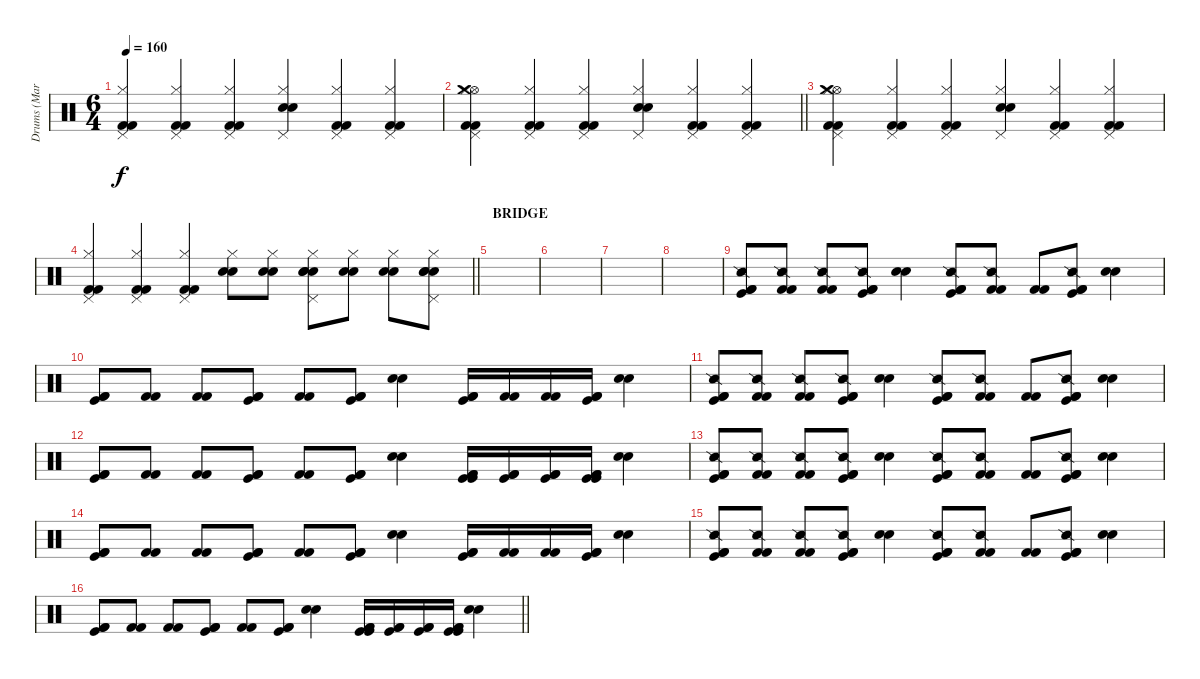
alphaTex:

\track ("Drums (Marc Allen)" "Drums (Mar") {instrument percussion}
\staff {score}
\articulation defaults
\ts (6 4)
\tempo 160
\clef neutral
\ks c
("Pedal Hi-Hat (hit)" "Hi-Hat (closed)" "Kick (hit) 2" "Kick (hit) 2").4{dy f} ("Pedal Hi-Hat (hit)" "Hi-Hat (closed)" "Kick (hit) 2" "Kick (hit) 2").4 ("Pedal Hi-Hat (hit)" "Hi-Hat (closed)" "Kick (hit) 2" "Kick (hit) 2").4 ("Pedal Hi-Hat (hit)" "Hi-Hat (closed)" "Electric Snare (hit)" "Electric Snare (hit)").4 ("Pedal Hi-Hat (hit)" "Hi-Hat (closed)" "Kick (hit) 2" "Kick (hit) 2").4 ("Pedal Hi-Hat (hit)" "Hi-Hat (closed)" "Kick (hit) 2" "Kick (hit) 2").4 |
\barLineRight lightlight
("Pedal Hi-Hat (hit)" "Hi-Hat (open)" "Hi-Hat (closed)" "Crash medium (hit)" "Kick (hit) 2" "Kick (hit) 2").4 ("Pedal Hi-Hat (hit)" "Hi-Hat (closed)" "Kick (hit) 2" "Kick (hit) 2").4 ("Pedal Hi-Hat (hit)" "Hi-Hat (closed)" "Kick (hit) 2" "Kick (hit) 2").4 ("Pedal Hi-Hat (hit)" "Hi-Hat (closed)" "Electric Snare (hit)" "Electric Snare (hit)").4 ("Pedal Hi-Hat (hit)" "Hi-Hat (closed)" "Kick (hit) 2" "Kick (hit) 2").4 ("Pedal Hi-Hat (hit)" "Hi-Hat (closed)" "Kick (hit) 2" "Kick (hit) 2").4 |
("Pedal Hi-Hat (hit)" "Hi-Hat (open)" "Hi-Hat (closed)" "Crash medium (hit)" "Kick (hit) 2" "Kick (hit) 2").4 ("Pedal Hi-Hat (hit)" "Hi-Hat (closed)" "Kick (hit) 2" "Kick (hit) 2").4 ("Pedal Hi-Hat (hit)" "Hi-Hat (closed)" "Kick (hit) 2" "Kick (hit) 2").4 ("Pedal Hi-Hat (hit)" "Hi-Hat (closed)" "Electric Snare (hit)" "Electric Snare (hit)").4 ("Pedal Hi-Hat (hit)" "Hi-Hat (closed)" "Kick (hit) 2" "Kick (hit) 2").4 ("Pedal Hi-Hat (hit)" "Hi-Hat (closed)" "Kick (hit) 2" "Kick (hit) 2").4 |
\barLineRight lightlight
("Pedal Hi-Hat (hit)" "Hi-Hat (closed)" "Kick (hit) 2" "Kick (hit) 2").4 ("Pedal Hi-Hat (hit)" "Hi-Hat (closed)" "Kick (hit) 2" "Kick (hit) 2").4 ("Pedal Hi-Hat (hit)" "Hi-Hat (closed)" "Kick (hit) 2" "Kick (hit) 2").4 ("Hi-Hat (closed)" "Electric Snare (hit)" "Electric Snare (hit)").8 ("Hi-Hat (closed)" "Electric Snare (hit)" "Electric Snare (hit)").8 ("Hi-Hat (closed)" "Pedal Hi-Hat (hit)" "Electric Snare (hit)" "Electric Snare (hit)" "Snare (hit) 2").8 ("Hi-Hat (closed)" "Electric Snare (hit)" "Electric Snare (hit)").8 ("Hi-Hat (closed)" "Electric Snare (hit)" "Electric Snare (hit)").8 ("Hi-Hat (closed)" "Pedal Hi-Hat (hit)" "Electric Snare (hit)" "Electric Snare (hit)" "Snare (hit) 2").8 |
\section ("" "BRIDGE")
|
|
|
|
("Kick (hit) 2" "Snare (side stick) 2" "Kick (hit) 2" "Kick (hit)").8 ("Kick (hit) 2" "Snare (side stick) 2" "Kick (hit) 2").8 ("Kick (hit) 2" "Snare (side stick) 2" "Kick (hit) 2").8 ("Kick (hit) 2" "Snare (side stick) 2" "Kick (hit) 2" "Kick (hit)").8 ("Electric Snare (hit)" "Electric Snare (hit)").4 ("Kick (hit) 2" "Snare (side stick) 2" "Kick (hit) 2" "Kick (hit)").8 ("Kick (hit) 2" "Snare (side stick) 2" "Kick (hit) 2").8 ("Kick (hit) 2" "Kick (hit) 2").8 ("Kick (hit) 2" "Snare (side stick) 2" "Kick (hit) 2" "Kick (hit)").8 ("Electric Snare (hit)" "Electric Snare (hit)").4 |
("Kick (hit) 2" "Kick (hit) 2" "Kick (hit)").8 ("Kick (hit) 2" "Kick (hit) 2").8 ("Kick (hit) 2" "Kick (hit) 2").8 ("Kick (hit) 2" "Kick (hit) 2" "Kick (hit)").8 ("Kick (hit) 2" "Kick (hit) 2").8 ("Kick (hit) 2" "Kick (hit) 2" "Kick (hit)").8 ("Electric Snare (hit)" "Electric Snare (hit)").4 ("Kick (hit) 2" "Kick (hit) 2" "Kick (hit)").16 ("Kick (hit) 2" "Kick (hit) 2").16 ("Kick (hit) 2" "Kick (hit) 2").16 ("Kick (hit) 2" "Kick (hit) 2" "Kick (hit)").16 ("Electric Snare (hit)" "Electric Snare (hit)").4 |
("Kick (hit) 2" "Snare (side stick) 2" "Kick (hit) 2" "Kick (hit)").8 ("Kick (hit) 2" "Snare (side stick) 2" "Kick (hit) 2").8 ("Kick (hit) 2" "Snare (side stick) 2" "Kick (hit) 2").8 ("Kick (hit) 2" "Snare (side stick) 2" "Kick (hit) 2" "Kick (hit)").8 ("Electric Snare (hit)" "Electric Snare (hit)").4 ("Kick (hit) 2" "Snare (side stick) 2" "Kick (hit) 2" "Kick (hit)").8 ("Kick (hit) 2" "Snare (side stick) 2" "Kick (hit) 2").8 ("Kick (hit) 2" "Kick (hit) 2").8 ("Kick (hit) 2" "Snare (side stick) 2" "Kick (hit) 2" "Kick (hit)").8 ("Electric Snare (hit)" "Electric Snare (hit)").4 |
("Kick (hit) 2" "Kick (hit) 2" "Kick (hit)").8 ("Kick (hit) 2" "Kick (hit) 2").8 ("Kick (hit) 2" "Kick (hit) 2").8 ("Kick (hit) 2" "Kick (hit) 2" "Kick (hit)").8 ("Kick (hit) 2" "Kick (hit) 2").8 ("Kick (hit) 2" "Kick (hit) 2" "Kick (hit)").8 ("Electric Snare (hit)" "Electric Snare (hit)").4 ("Kick (hit) 2" "Kick (hit)" "Kick (hit) 2" "Kick (hit)").16 ("Kick (hit) 2" "Kick (hit)" "Kick (hit) 2").16 ("Kick (hit) 2" "Kick (hit)" "Kick (hit) 2").16 ("Kick (hit) 2" "Kick (hit)" "Kick (hit) 2" "Kick (hit)").16 ("Electric Snare (hit)" "Electric Snare (hit)").4 |
("Kick (hit) 2" "Snare (side stick) 2" "Kick (hit) 2" "Kick (hit)").8 ("Kick (hit) 2" "Snare (side stick) 2" "Kick (hit) 2").8 ("Kick (hit) 2" "Snare (side stick) 2" "Kick (hit) 2").8 ("Kick (hit) 2" "Snare (side stick) 2" "Kick (hit) 2" "Kick (hit)").8 ("Electric Snare (hit)" "Electric Snare (hit)").4 ("Kick (hit) 2" "Snare (side stick) 2" "Kick (hit) 2" "Kick (hit)").8 ("Kick (hit) 2" "Snare (side stick) 2" "Kick (hit) 2").8 ("Kick (hit) 2" "Kick (hit) 2").8 ("Kick (hit) 2" "Snare (side stick) 2" "Kick (hit) 2" "Kick (hit)").8 ("Electric Snare (hit)" "Electric Snare (hit)").4 |
("Kick (hit) 2" "Kick (hit) 2" "Kick (hit)").8 ("Kick (hit) 2" "Kick (hit) 2").8 ("Kick (hit) 2" "Kick (hit) 2").8 ("Kick (hit) 2" "Kick (hit) 2" "Kick (hit)").8 ("Kick (hit) 2" "Kick (hit) 2").8 ("Kick (hit) 2" "Kick (hit) 2" "Kick (hit)").8 ("Electric Snare (hit)" "Electric Snare (hit)").4 ("Kick (hit) 2" "Kick (hit) 2" "Kick (hit)").16 ("Kick (hit) 2" "Kick (hit) 2").16 ("Kick (hit) 2" "Kick (hit) 2").16 ("Kick (hit) 2" "Kick (hit) 2" "Kick (hit)").16 ("Electric Snare (hit)" "Electric Snare (hit)").4 |
("Kick (hit) 2" "Snare (side stick) 2" "Kick (hit) 2" "Kick (hit)").8 ("Kick (hit) 2" "Snare (side stick) 2" "Kick (hit) 2").8 ("Kick (hit) 2" "Snare (side stick) 2" "Kick (hit) 2").8 ("Kick (hit) 2" "Snare (side stick) 2" "Kick (hit) 2" "Kick (hit)").8 ("Electric Snare (hit)" "Electric Snare (hit)").4 ("Kick (hit) 2" "Snare (side stick) 2" "Kick (hit) 2" "Kick (hit)").8 ("Kick (hit) 2" "Snare (side stick) 2" "Kick (hit) 2").8 ("Kick (hit) 2" "Kick (hit) 2").8 ("Kick (hit) 2" "Snare (side stick) 2" "Kick (hit) 2" "Kick (hit)").8 ("Electric Snare (hit)" "Electric Snare (hit)").4 |
\barLineRight lightlight
("Kick (hit) 2" "Kick (hit) 2" "Kick (hit)").8 ("Kick (hit) 2" "Kick (hit) 2").8 ("Kick (hit) 2" "Kick (hit) 2").8 ("Kick (hit) 2" "Kick (hit) 2" "Kick (hit)").8 ("Kick (hit) 2" "Kick (hit) 2").8 ("Kick (hit) 2" "Kick (hit) 2" "Kick (hit)").8 ("Electric Snare (hit)" "Electric Snare (hit)").4 ("Kick (hit) 2" "Kick (hit)" "Kick (hit) 2" "Kick (hit)").16 ("Kick (hit) 2" "Kick (hit)" "Kick (hit) 2").16 ("Kick (hit) 2" "Kick (hit)" "Kick (hit) 2").16 ("Kick (hit) 2" "Kick (hit)" "Kick (hit) 2" "Kick (hit)").16 ("Electric Snare (hit)" "Electric Snare (hit)").4
